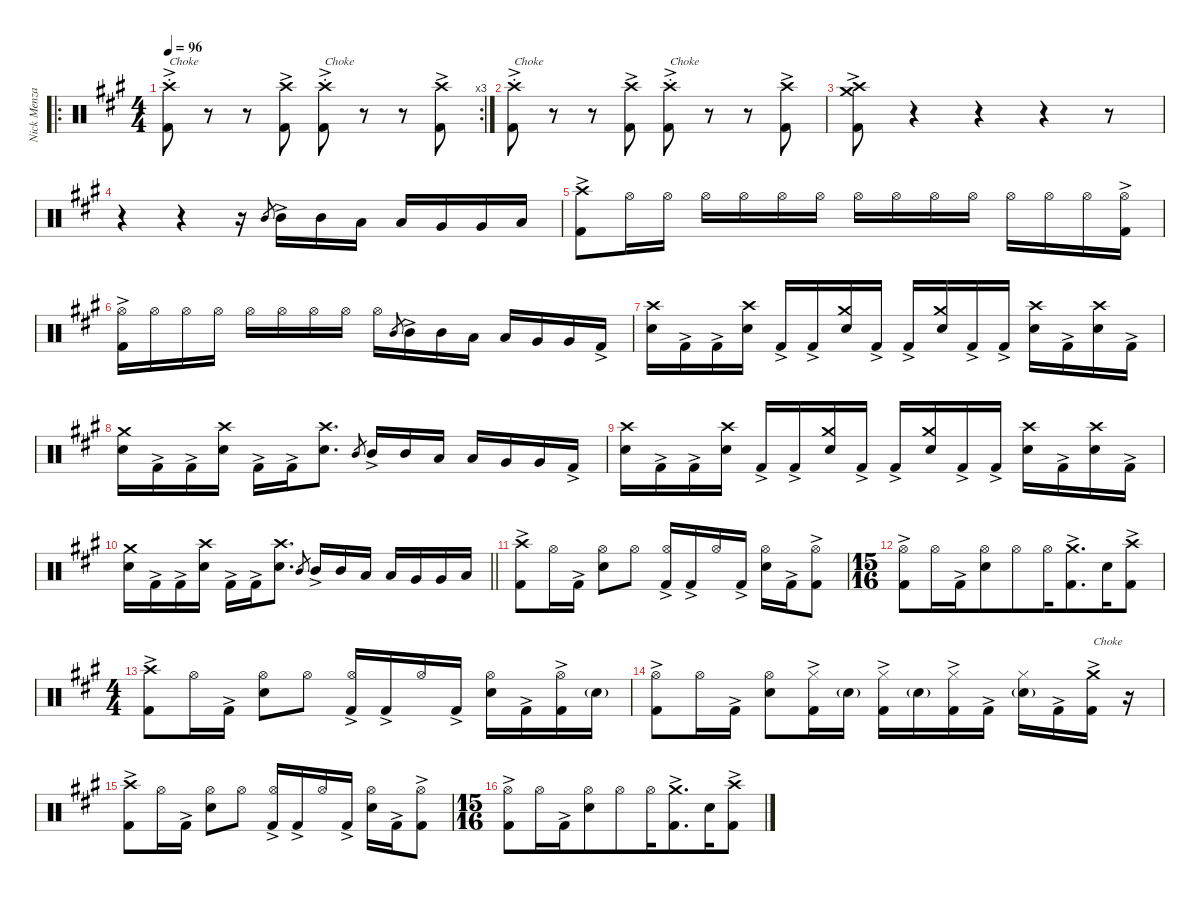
\defaultSystemsLayout 4
\hideDynamics
\bracketExtendMode nobrackets
\firstSystemTrackNameMode fullname
\otherSystemsTrackNameOrientation horizontal
\track ("Nick Menza" "drm.") {instrument percussion}
\staff {score}
\articulation defaults
\ro
\rc 3
\ts (4 4)
\beaming (8 2 2 2 2)
\tempo 96
\clef neutral
\ks f#minor
("Crash high (hit)"{st acc forcenatural} "Kick (hit) 2"{ac acc forcenatural}).8{txt "Choke " dy f beam Down} r.8{beam Down} r.8{beam Down} ("Crash high (hit)"{acc forcenatural} "Kick (hit) 2"{ac acc forcenatural}).8{beam Down} ("Crash high (hit)"{st acc forcenatural} "Kick (hit) 2"{ac acc forcenatural}).8{txt "Choke" beam Down} r.8{beam Down} r.8{beam Down} ("Crash high (hit)"{acc forcenatural} "Kick (hit) 2"{ac acc forcenatural}).8{beam Down} |
("Crash high (hit)"{st acc forcenatural} "Kick (hit) 2"{ac acc forcenatural}).8{txt "Choke" beam Down} r.8{beam Down} r.8{beam Down} ("Crash high (hit)"{acc forcenatural} "Kick (hit) 2"{ac acc forcenatural}).8{beam Down} ("Crash high (hit)"{st acc forcenatural} "Kick (hit) 2"{ac acc forcenatural}).8{txt "Choke" beam Down} r.8{beam Down} r.8{beam Down} ("Crash high (hit)"{acc forcenatural} "Kick (hit) 2"{ac acc forcenatural}).8{beam Down} |
("Crash high (hit)"{acc forcenatural} "Crash medium (hit)"{acc forcenatural} "Kick (hit) 2"{ac acc forcenatural}).8{beam Down} r.4{beam Down} r.4{beam Down} r.4{beam Down} r.8{beam Down} |
r.4{beam Down} r.4{beam Down} r.16{beam Down} "Mid Tom (hit)"{acc forcenatural}.8{gr dy pp beam Up} "Mid Tom (hit)"{ac acc forcenatural}.16{dy ff beam Up} "Mid Tom (hit)"{acc forcenatural}.16{dy f beam Up} "Low Tom (hit)"{acc forcenatural}.16{beam Up} "Low Tom (hit)"{acc forcenatural}.16{beam Up} "Very Low Tom (hit)"{acc forcenatural}.16{beam Up} "Very Low Tom (hit)"{acc forcenatural}.16{beam Up} "Low Floor Tom (hit)"{acc forcenatural}.16{beam Up} |
("Crash high (hit)"{acc forcenatural} "Kick (hit) 2"{ac acc forcenatural}).8{beam Down} "Hi-Hat (open)"{acc forcenatural}.16{dy mp beam Down} "Hi-Hat (open)"{acc forcenatural}.16{beam Down} "Hi-Hat (open)"{acc forcenatural}.16{dy ff beam Down} "Hi-Hat (open)"{acc forcenatural}.16{dy mp beam Down} "Hi-Hat (open)"{acc forcenatural}.16{beam Down} "Hi-Hat (open)"{acc forcenatural}.16{beam Down} "Hi-Hat (open)"{acc forcenatural}.16{dy ff beam Down} "Hi-Hat (open)"{acc forcenatural}.16{dy mp beam Down} "Hi-Hat (open)"{acc forcenatural}.16{beam Down} "Hi-Hat (open)"{acc forcenatural}.16{beam Down} "Hi-Hat (open)"{acc forcenatural}.16{dy ff beam Down} "Hi-Hat (open)"{acc forcenatural}.16{dy mp beam Down} "Hi-Hat (open)"{acc forcenatural}.16{beam Down} ("Hi-Hat (open)"{acc forcenatural} "Kick (hit) 2"{ac acc forcenatural}).16{beam Down} |
("Hi-Hat (open)"{acc forcenatural} "Kick (hit) 2"{ac acc forcenatural}).16{dy ff beam Down} "Hi-Hat (open)"{acc forcenatural}.16{dy mp beam Down} "Hi-Hat (open)"{acc forcenatural}.16{beam Down} "Hi-Hat (open)"{acc forcenatural}.16{beam Down} "Hi-Hat (open)"{acc forcenatural}.16{dy ff beam Down} "Hi-Hat (open)"{acc forcenatural}.16{dy mp beam Down} "Hi-Hat (open)"{acc forcenatural}.16{beam Down} "Hi-Hat (open)"{acc forcenatural}.16{beam Down} "Hi-Hat (open)"{acc forcenatural}.16{dy ff beam Down} "Mid Tom (hit)"{acc forcenatural}.8{gr dy pp beam Up} "Mid Tom (hit)"{ac acc forcenatural}.16{dy ff beam Down} "Mid Tom (hit)"{acc forcenatural}.16{dy f beam Down} "Low Tom (hit)"{acc forcenatural}.16{beam Down} "Low Tom (hit)"{acc forcenatural}.16{beam Up} "Very Low Tom (hit)"{acc forcenatural}.16{beam Up} "Very Low Tom (hit)"{acc forcenatural}.16{beam Up} "Kick (hit) 2"{ac acc forcenatural}.16{dy ff beam Up} |
("Crash high (hit)"{acc forcenatural} "Snare (hit) 2"{acc forcenatural}).16{dy f beam Down} "Kick (hit) 2"{ac acc forcenatural}.16{dy ff beam Down} "Kick (hit) 2"{ac acc forcenatural}.16{beam Down} ("Crash high (hit)"{acc forcenatural} "Snare (hit) 2"{acc forcenatural}).16{dy f beam Down} "Kick (hit) 2"{ac acc forcenatural}.16{dy ff beam Up} "Kick (hit) 2"{ac acc forcenatural}.16{beam Up} ("Crash medium (hit)"{acc forcenatural} "Snare (hit) 2"{acc forcenatural}).16{dy f beam Up} "Kick (hit) 2"{ac acc forcenatural}.16{dy ff beam Up} "Kick (hit) 2"{ac acc forcenatural}.16{beam Up} ("Crash medium (hit)"{acc forcenatural} "Snare (hit) 2"{acc forcenatural}).16{dy f beam Up} "Kick (hit) 2"{ac acc forcenatural}.16{dy ff beam Up} "Kick (hit) 2"{ac acc forcenatural}.16{beam Up} ("Crash high (hit)"{acc forcenatural} "Snare (hit) 2"{acc forcenatural}).16{dy f beam Down} "Kick (hit) 2"{ac acc forcenatural}.16{dy ff beam Down} ("Crash high (hit)"{acc forcenatural} "Snare (hit) 2"{acc forcenatural}).16{dy f beam Down} "Kick (hit) 2"{ac acc forcenatural}.16{dy ff beam Down} |
("Crash medium (hit)"{acc forcenatural} "Snare (hit) 2"{acc forcenatural}).16{dy f beam Down} "Kick (hit) 2"{ac acc forcenatural}.16{dy ff beam Down} "Kick (hit) 2"{ac acc forcenatural}.16{beam Down} ("Crash high (hit)"{acc forcenatural} "Snare (hit) 2"{acc forcenatural}).16{dy f beam Down} "Kick (hit) 2"{ac acc forcenatural}.16{dy ff beam Down} "Kick (hit) 2"{ac acc forcenatural}.16{beam Down} ("Crash high (hit)"{acc forcenatural} "Snare (hit) 2"{acc forcenatural}).8{d dy f beam Down} "Mid Tom (hit)"{acc forcenatural}.8{gr dy ppp beam Up} "Mid Tom (hit)"{ac acc forcenatural}.16{dy ff beam Up} "Mid Tom (hit)"{acc forcenatural}.16{dy f beam Up} "Low Tom (hit)"{acc forcenatural}.16{beam Up} "Low Tom (hit)"{acc forcenatural}.16{beam Up} "Very Low Tom (hit)"{acc forcenatural}.16{beam Up} "Very Low Tom (hit)"{acc forcenatural}.16{beam Up} "Kick (hit) 2"{ac acc forcenatural}.16{dy ff beam Up} |
("Crash high (hit)"{acc forcenatural} "Snare (hit) 2"{acc forcenatural}).16{dy f beam Down} "Kick (hit) 2"{ac acc forcenatural}.16{dy ff beam Down} "Kick (hit) 2"{ac acc forcenatural}.16{beam Down} ("Crash high (hit)"{acc forcenatural} "Snare (hit) 2"{acc forcenatural}).16{dy f beam Down} "Kick (hit) 2"{ac acc forcenatural}.16{dy ff beam Up} "Kick (hit) 2"{ac acc forcenatural}.16{beam Up} ("Crash medium (hit)"{acc forcenatural} "Snare (hit) 2"{acc forcenatural}).16{dy f beam Up} "Kick (hit) 2"{ac acc forcenatural}.16{dy ff beam Up} "Kick (hit) 2"{ac acc forcenatural}.16{beam Up} ("Crash medium (hit)"{acc forcenatural} "Snare (hit) 2"{acc forcenatural}).16{dy f beam Up} "Kick (hit) 2"{ac acc forcenatural}.16{dy ff beam Up} "Kick (hit) 2"{ac acc forcenatural}.16{beam Up} ("Crash high (hit)"{acc forcenatural} "Snare (hit) 2"{acc forcenatural}).16{dy f beam Down} "Kick (hit) 2"{ac acc forcenatural}.16{dy ff beam Down} ("Crash high (hit)"{acc forcenatural} "Snare (hit) 2"{acc forcenatural}).16{dy f beam Down} "Kick (hit) 2"{ac acc forcenatural}.16{dy ff beam Down} |
\barLineRight lightlight
("Crash medium (hit)"{acc forcenatural} "Snare (hit) 2"{acc forcenatural}).16{dy f beam Down} "Kick (hit) 2"{ac acc forcenatural}.16{dy ff beam Down} "Kick (hit) 2"{ac acc forcenatural}.16{beam Down} ("Crash high (hit)"{acc forcenatural} "Snare (hit) 2"{acc forcenatural}).16{dy f beam Down} "Kick (hit) 2"{ac acc forcenatural}.16{dy ff beam Down} "Kick (hit) 2"{ac acc forcenatural}.16{beam Down} ("Crash high (hit)"{acc forcenatural} "Snare (hit) 2"{acc forcenatural}).8{d dy f beam Down} "Mid Tom (hit)"{acc forcenatural}.8{gr dy ppp beam Up} "Mid Tom (hit)"{ac acc forcenatural}.16{dy ff beam Up} "Mid Tom (hit)"{acc forcenatural}.16{dy f beam Up} "Low Tom (hit)"{acc forcenatural}.16{beam Up} "Low Tom (hit)"{acc forcenatural}.16{beam Up} "Very Low Tom (hit)"{acc forcenatural}.16{beam Up} "Very Low Tom (hit)"{acc forcenatural}.16{beam Up} "Low Floor Tom (hit)"{acc forcenatural}.16{beam Up} |
("Crash high (hit)"{acc forcenatural} "Kick (hit) 2"{ac acc forcenatural}).8{beam Down} "Hi-Hat (open)"{acc forcenatural}.16{beam Down} "Kick (hit) 2"{ac acc forcenatural}.16{dy ff beam Down} ("Hi-Hat (open)"{acc forcenatural} "Snare (hit) 2"{acc forcenatural}).8{dy f beam Down} "Hi-Hat (open)"{acc forcenatural}.8{beam Down} ("Hi-Hat (open)"{acc forcenatural} "Kick (hit) 2"{ac acc forcenatural}).16{beam Up} "Kick (hit) 2"{ac acc forcenatural}.16{dy ff beam Up} "Hi-Hat (open)"{acc forcenatural}.16{dy f beam Up} "Kick (hit) 2"{ac acc forcenatural}.16{dy ff beam Up} ("Hi-Hat (open)"{acc forcenatural} "Snare (hit) 2"{acc forcenatural}).16{dy f beam Down} "Kick (hit) 2"{ac acc forcenatural}.16{dy ff beam Down} ("Hi-Hat (open)"{acc forcenatural} "Kick (hit) 2"{ac acc forcenatural}).8{dy f beam Down} |
\ts (15 16)
\beaming (8 7)
("Hi-Hat (open)"{acc forcenatural} "Kick (hit) 2"{ac acc forcenatural}).8{beam Down} "Hi-Hat (open)"{acc forcenatural}.16{beam Down} "Kick (hit) 2"{ac acc forcenatural}.16{dy ff beam Down} ("Hi-Hat (open)"{acc forcenatural} "Snare (hit) 2"{acc forcenatural}).8{dy f beam Down} "Hi-Hat (open)"{acc forcenatural}.8{beam Down} "Hi-Hat (open)"{acc forcenatural}.16{beam Down} ("Crash medium (hit)"{acc forcenatural} "Kick (hit) 2"{ac acc forcenatural}).8{d beam Down} "Snare (hit) 2"{acc forcenatural}.16{beam Down} ("Crash high (hit)"{acc forcenatural} "Kick (hit) 2"{ac acc forcenatural}).8{beam Down} |
\ts (4 4)
\beaming (8 2 2 2 2)
("Crash high (hit)"{acc forcenatural} "Kick (hit) 2"{ac acc forcenatural}).8{beam Down} "Hi-Hat (open)"{acc forcenatural}.16{beam Down} "Kick (hit) 2"{ac acc forcenatural}.16{dy ff beam Down} ("Hi-Hat (open)"{acc forcenatural} "Snare (hit) 2"{acc forcenatural}).8{dy f beam Down} "Hi-Hat (open)"{acc forcenatural}.8{beam Down} ("Hi-Hat (open)"{acc forcenatural} "Kick (hit) 2"{ac acc forcenatural}).16{beam Up} "Kick (hit) 2"{ac acc forcenatural}.16{dy ff beam Up} "Hi-Hat (open)"{acc forcenatural}.16{dy f beam Up} "Kick (hit) 2"{ac acc forcenatural}.16{dy ff beam Up} ("Hi-Hat (open)"{acc forcenatural} "Snare (hit) 2"{acc forcenatural}).16{dy f beam Down} "Kick (hit) 2"{ac acc forcenatural}.16{dy ff beam Down} ("Hi-Hat (open)"{acc forcenatural} "Kick (hit) 2"{ac acc forcenatural}).16{dy f beam Down} "Snare (hit) 2"{g acc forcenatural}.16{dy mf beam Down} |
("Hi-Hat (open)"{acc forcenatural} "Kick (hit) 2"{ac acc forcenatural}).8{dy f beam Down} "Hi-Hat (open)"{acc forcenatural}.16{beam Down} "Kick (hit) 2"{ac acc forcenatural}.16{dy ff beam Down} ("Hi-Hat (open)"{acc forcenatural} "Snare (hit) 2"{acc forcenatural}).8{dy f beam Down} ("Hi-Hat (closed)"{acc forcenatural} "Kick (hit) 2"{ac acc forcenatural}).16{beam Down} "Snare (hit) 2"{g acc forcenatural}.16{dy mf beam Down} ("Hi-Hat (closed)"{acc forcenatural} "Kick (hit) 2"{ac acc forcenatural}).16{dy f beam Down} "Snare (hit) 2"{g acc forcenatural}.16{dy mf beam Down} ("Hi-Hat (closed)"{acc forcenatural} "Kick (hit) 2"{ac acc forcenatural}).16{dy f beam Down} "Kick (hit) 2"{ac acc forcenatural}.16{dy ff beam Down} ("Hi-Hat (closed)"{acc forcenatural} "Snare (hit) 2"{g acc forcenatural}).16{dy f beam Down} "Kick (hit) 2"{ac acc forcenatural}.16{dy ff beam Down} ("Crash medium (hit)"{acc forcenatural} "Kick (hit) 2"{ac acc forcenatural}).16{txt "Choke" dy f beam Down} r.16{beam Down} |
("Crash high (hit)"{acc forcenatural} "Kick (hit) 2"{ac acc forcenatural}).8{beam Down} "Hi-Hat (open)"{acc forcenatural}.16{beam Down} "Kick (hit) 2"{ac acc forcenatural}.16{dy ff beam Down} ("Hi-Hat (open)"{acc forcenatural} "Snare (hit) 2"{acc forcenatural}).8{dy f beam Down} "Hi-Hat (open)"{acc forcenatural}.8{beam Down} ("Hi-Hat (open)"{acc forcenatural} "Kick (hit) 2"{ac acc forcenatural}).16{beam Up} "Kick (hit) 2"{ac acc forcenatural}.16{dy ff beam Up} "Hi-Hat (open)"{acc forcenatural}.16{dy f beam Up} "Kick (hit) 2"{ac acc forcenatural}.16{dy ff beam Up} ("Hi-Hat (open)"{acc forcenatural} "Snare (hit) 2"{acc forcenatural}).16{dy f beam Down} "Kick (hit) 2"{ac acc forcenatural}.16{dy ff beam Down} ("Hi-Hat (open)"{acc forcenatural} "Kick (hit) 2"{ac acc forcenatural}).8{dy f beam Down} |
\ts (15 16)
\beaming (8 7)
("Hi-Hat (open)"{acc forcenatural} "Kick (hit) 2"{ac acc forcenatural}).8{beam Down} "Hi-Hat (open)"{acc forcenatural}.16{beam Down} "Kick (hit) 2"{ac acc forcenatural}.16{dy ff beam Down} ("Hi-Hat (open)"{acc forcenatural} "Snare (hit) 2"{acc forcenatural}).8{dy f beam Down} "Hi-Hat (open)"{acc forcenatural}.8{beam Down} "Hi-Hat (open)"{acc forcenatural}.16{beam Down} ("Crash medium (hit)"{acc forcenatural} "Kick (hit) 2"{ac acc forcenatural}).8{d beam Down} "Snare (hit) 2"{acc forcenatural}.16{beam Down} ("Crash high (hit)"{acc forcenatural} "Kick (hit) 2"{ac acc forcenatural}).8{beam Down}
